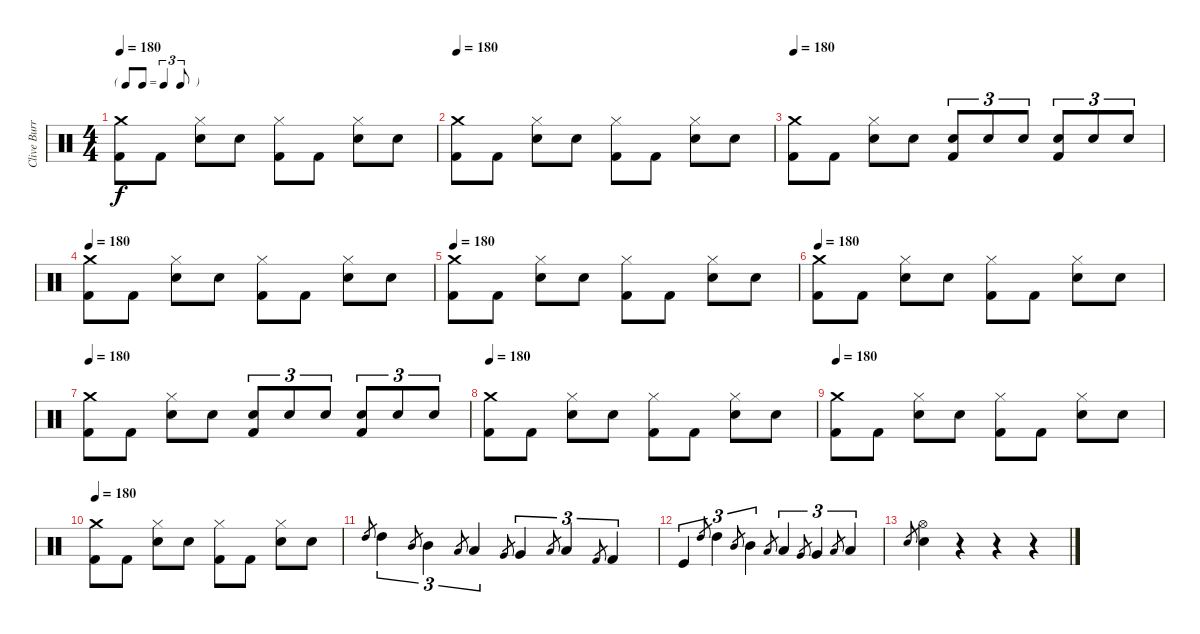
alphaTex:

\track ("Clive Burr" "Clive Burr") {instrument percussion}
\staff {score}
\articulation defaults
\ts (4 4)
\tf triplet8th
\tempo 180
\clef neutral
\ks c
("Crash medium (hit)" "Kick (hit) 2").8{dy f} "Kick (hit) 2".8 ("Hi-Hat (closed)" "Electric Snare (hit)").8 "Electric Snare (hit)".8 ("Hi-Hat (closed)" "Kick (hit) 2").8 "Kick (hit) 2".8 ("Hi-Hat (closed)" "Electric Snare (hit)").8 "Electric Snare (hit)".8 |
\tempo 180
("Crash medium (hit)" "Kick (hit) 2").8 "Kick (hit) 2".8 ("Hi-Hat (closed)" "Electric Snare (hit)").8 "Electric Snare (hit)".8 ("Hi-Hat (closed)" "Kick (hit) 2").8 "Kick (hit) 2".8 ("Hi-Hat (closed)" "Electric Snare (hit)").8 "Electric Snare (hit)".8 |
\tempo 180
("Crash medium (hit)" "Kick (hit) 2").8 "Kick (hit) 2".8 ("Hi-Hat (closed)" "Electric Snare (hit)").8 "Electric Snare (hit)".8 ("Electric Snare (hit)" "Kick (hit) 2").8{tu (3 2)} "Electric Snare (hit)".8{tu (3 2)} "Electric Snare (hit)".8{tu (3 2)} ("Electric Snare (hit)" "Kick (hit) 2").8{tu (3 2)} "Electric Snare (hit)".8{tu (3 2)} "Electric Snare (hit)".8{tu (3 2)} |
\tempo 180
("Crash medium (hit)" "Kick (hit) 2").8 "Kick (hit) 2".8 ("Hi-Hat (closed)" "Electric Snare (hit)").8 "Electric Snare (hit)".8 ("Hi-Hat (closed)" "Kick (hit) 2").8 "Kick (hit) 2".8 ("Hi-Hat (closed)" "Electric Snare (hit)").8 "Electric Snare (hit)".8 |
\tempo 180
("Crash medium (hit)" "Kick (hit) 2").8 "Kick (hit) 2".8 ("Hi-Hat (closed)" "Electric Snare (hit)").8 "Electric Snare (hit)".8 ("Hi-Hat (closed)" "Kick (hit) 2").8 "Kick (hit) 2".8 ("Hi-Hat (closed)" "Electric Snare (hit)").8 "Electric Snare (hit)".8 |
\tempo 180
("Crash medium (hit)" "Kick (hit) 2").8 "Kick (hit) 2".8 ("Hi-Hat (closed)" "Electric Snare (hit)").8 "Electric Snare (hit)".8 ("Hi-Hat (closed)" "Kick (hit) 2").8 "Kick (hit) 2".8 ("Hi-Hat (closed)" "Electric Snare (hit)").8 "Electric Snare (hit)".8 |
\tempo 180
("Crash medium (hit)" "Kick (hit) 2").8 "Kick (hit) 2".8 ("Hi-Hat (closed)" "Electric Snare (hit)").8 "Electric Snare (hit)".8 ("Electric Snare (hit)" "Kick (hit) 2").8{tu (3 2)} "Electric Snare (hit)".8{tu (3 2)} "Electric Snare (hit)".8{tu (3 2)} ("Electric Snare (hit)" "Kick (hit) 2").8{tu (3 2)} "Electric Snare (hit)".8{tu (3 2)} "Electric Snare (hit)".8{tu (3 2)} |
\tempo 180
("Crash medium (hit)" "Kick (hit) 2").8 "Kick (hit) 2".8 ("Hi-Hat (closed)" "Electric Snare (hit)").8 "Electric Snare (hit)".8 ("Hi-Hat (closed)" "Kick (hit) 2").8 "Kick (hit) 2".8 ("Hi-Hat (closed)" "Electric Snare (hit)").8 "Electric Snare (hit)".8 |
\tempo 180
("Crash medium (hit)" "Kick (hit) 2").8 "Kick (hit) 2".8 ("Hi-Hat (closed)" "Electric Snare (hit)").8 "Electric Snare (hit)".8 ("Hi-Hat (closed)" "Kick (hit) 2").8 "Kick (hit) 2".8 ("Hi-Hat (closed)" "Electric Snare (hit)").8 "Electric Snare (hit)".8 |
\tempo 180
("Crash medium (hit)" "Kick (hit) 2").8 "Kick (hit) 2".8 ("Hi-Hat (closed)" "Electric Snare (hit)").8 "Electric Snare (hit)".8 ("Hi-Hat (closed)" "Kick (hit) 2").8 "Kick (hit) 2".8 ("Hi-Hat (closed)" "Electric Snare (hit)").8 "Electric Snare (hit)".8 |
"High Tom (hit)".8{gr} "High Tom (hit)".4{tu (3 2)} "Mid Tom (hit)".8{gr} "Mid Tom (hit)".4{tu (3 2)} "Low Tom (hit)".8{gr} "Low Tom (hit)".4{tu (3 2)} "Very Low Tom (hit)".8{gr} "Very Low Tom (hit)".4{tu (3 2)} "Low Floor Tom (hit)".8{gr} "Low Floor Tom (hit)".4{tu (3 2)} "Kick (hit) 2".8{gr} "Kick (hit) 2".4{tu (3 2)} |
"Kick (hit)".4{tu (3 2)} "High Tom (hit)".8{gr} "High Tom (hit)".4{tu (3 2)} "Mid Tom (hit)".8{gr} "Mid Tom (hit)".4{tu (3 2)} "Low Tom (hit)".8{gr} "Low Tom (hit)".4{tu (3 2)} "Very Low Tom (hit)".8{gr} "Very Low Tom (hit)".4{tu (3 2)} "Low Floor Tom (hit)".8{gr} "Low Floor Tom (hit)".4{tu (3 2)} |
"Electric Snare (hit)".8{gr} ("Hi-Hat (open)" "Electric Snare (hit)").4 r.4 r.4 r.4
